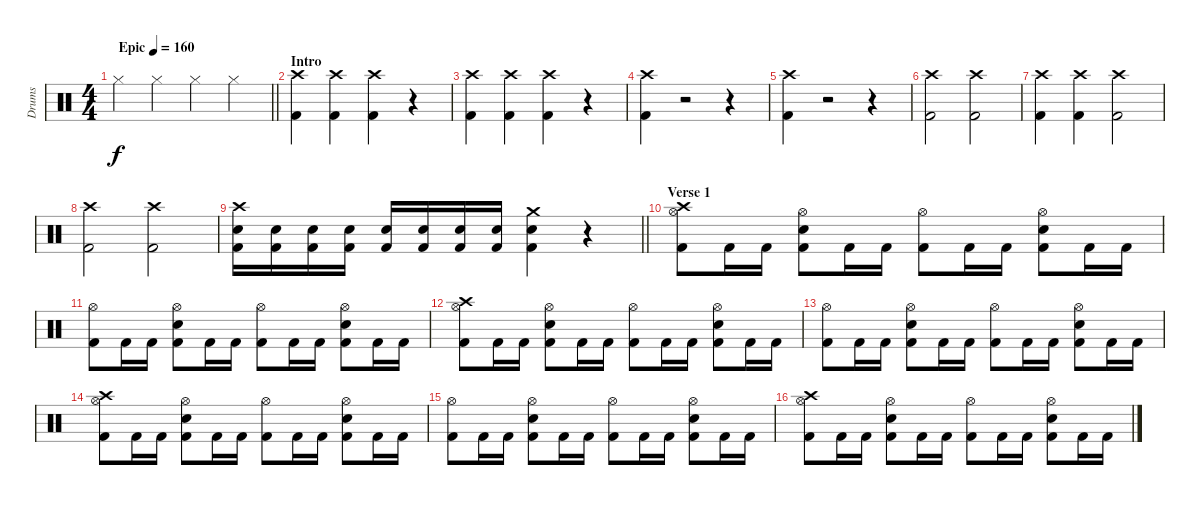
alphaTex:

\track ("Drums" "Drums") {instrument percussion}
\staff {score}
\articulation defaults
\ts (4 4)
\tempo (160 "Epic")
\clef neutral
\barLineRight lightlight
\ks c "Hi-Hat (closed)".4{dy f} "Hi-Hat (closed)".4 "Hi-Hat (closed)".4 "Hi-Hat (closed)".4
|
\section ("" "Intro")
("Crash high (hit)" "Kick (hit) 2").4 ("Crash high (hit)" "Kick (hit) 2").4 ("Crash high (hit)" "Kick (hit) 2").4 r.4 |
("Crash high (hit)" "Kick (hit) 2").4 ("Crash high (hit)" "Kick (hit) 2").4 ("Crash high (hit)" "Kick (hit) 2").4 r.4 |
("Crash high (hit)" "Kick (hit) 2").4 r.2 r.4 |
("Crash high (hit)" "Kick (hit) 2").4 r.2 r.4 |
("Crash high (hit)" "Kick (hit) 2").2 ("Crash high (hit)" "Kick (hit) 2").2 |
("Crash high (hit)" "Kick (hit) 2").4 ("Crash high (hit)" "Kick (hit) 2").4 ("Crash high (hit)" "Kick (hit) 2").2 |
("Crash high (hit)" "Kick (hit) 2").2 ("Crash high (hit)" "Kick (hit) 2").2 |
\barLineRight lightlight
("Crash high (hit)" "Snare (hit) 2" "Kick (hit) 2").16 ("Snare (hit) 2" "Kick (hit) 2").16 ("Snare (hit) 2" "Kick (hit) 2").16 ("Snare (hit) 2" "Kick (hit) 2").16 ("Snare (hit) 2" "Kick (hit) 2").16 ("Snare (hit) 2" "Kick (hit) 2").16 ("Snare (hit) 2" "Kick (hit) 2").16 ("Snare (hit) 2" "Kick (hit) 2").16 ("Crash medium (hit)" "Snare (hit) 2" "Kick (hit) 2").4 r.4 |
\section ("" "Verse 1")
("Crash high (hit)" "Hi-Hat (open)" "Kick (hit) 2").8 "Kick (hit) 2".16 "Kick (hit) 2".16 ("Hi-Hat (open)" "Snare (hit) 2" "Kick (hit) 2").8 "Kick (hit) 2".16 "Kick (hit) 2".16 ("Hi-Hat (open)" "Kick (hit) 2").8 "Kick (hit) 2".16 "Kick (hit) 2".16 ("Hi-Hat (open)" "Snare (hit) 2" "Kick (hit) 2").8 "Kick (hit) 2".16 "Kick (hit) 2".16 |
("Hi-Hat (open)" "Kick (hit) 2").8 "Kick (hit) 2".16 "Kick (hit) 2".16 ("Hi-Hat (open)" "Snare (hit) 2" "Kick (hit) 2").8 "Kick (hit) 2".16 "Kick (hit) 2".16 ("Hi-Hat (open)" "Kick (hit) 2").8 "Kick (hit) 2".16 "Kick (hit) 2".16 ("Hi-Hat (open)" "Snare (hit) 2" "Kick (hit) 2").8 "Kick (hit) 2".16 "Kick (hit) 2".16 |
("Crash high (hit)" "Hi-Hat (open)" "Kick (hit) 2").8 "Kick (hit) 2".16 "Kick (hit) 2".16 ("Hi-Hat (open)" "Snare (hit) 2" "Kick (hit) 2").8 "Kick (hit) 2".16 "Kick (hit) 2".16 ("Hi-Hat (open)" "Kick (hit) 2").8 "Kick (hit) 2".16 "Kick (hit) 2".16 ("Hi-Hat (open)" "Snare (hit) 2" "Kick (hit) 2").8 "Kick (hit) 2".16 "Kick (hit) 2".16 |
("Hi-Hat (open)" "Kick (hit) 2").8 "Kick (hit) 2".16 "Kick (hit) 2".16 ("Hi-Hat (open)" "Snare (hit) 2" "Kick (hit) 2").8 "Kick (hit) 2".16 "Kick (hit) 2".16 ("Hi-Hat (open)" "Kick (hit) 2").8 "Kick (hit) 2".16 "Kick (hit) 2".16 ("Hi-Hat (open)" "Snare (hit) 2" "Kick (hit) 2").8 "Kick (hit) 2".16 "Kick (hit) 2".16 |
("Crash high (hit)" "Hi-Hat (open)" "Kick (hit) 2").8 "Kick (hit) 2".16 "Kick (hit) 2".16 ("Hi-Hat (open)" "Snare (hit) 2" "Kick (hit) 2").8 "Kick (hit) 2".16 "Kick (hit) 2".16 ("Hi-Hat (open)" "Kick (hit) 2").8 "Kick (hit) 2".16 "Kick (hit) 2".16 ("Hi-Hat (open)" "Snare (hit) 2" "Kick (hit) 2").8 "Kick (hit) 2".16 "Kick (hit) 2".16 |
("Hi-Hat (open)" "Kick (hit) 2").8 "Kick (hit) 2".16 "Kick (hit) 2".16 ("Hi-Hat (open)" "Snare (hit) 2" "Kick (hit) 2").8 "Kick (hit) 2".16 "Kick (hit) 2".16 ("Hi-Hat (open)" "Kick (hit) 2").8 "Kick (hit) 2".16 "Kick (hit) 2".16 ("Hi-Hat (open)" "Snare (hit) 2" "Kick (hit) 2").8 "Kick (hit) 2".16 "Kick (hit) 2".16 |
("Crash high (hit)" "Hi-Hat (open)" "Kick (hit) 2").8 "Kick (hit) 2".16 "Kick (hit) 2".16 ("Hi-Hat (open)" "Snare (hit) 2" "Kick (hit) 2").8 "Kick (hit) 2".16 "Kick (hit) 2".16 ("Hi-Hat (open)" "Kick (hit) 2").8 "Kick (hit) 2".16 "Kick (hit) 2".16 ("Hi-Hat (open)" "Snare (hit) 2" "Kick (hit) 2").8 "Kick (hit) 2".16 "Kick (hit) 2".16
